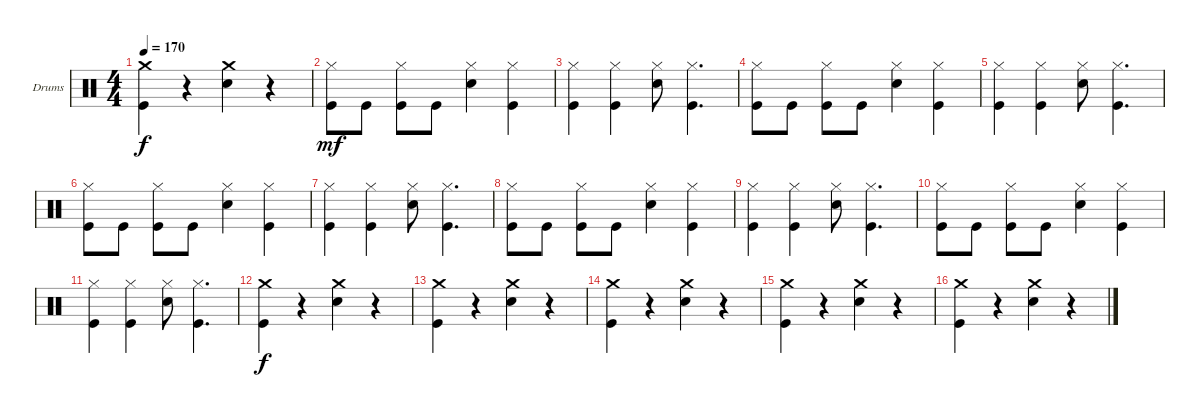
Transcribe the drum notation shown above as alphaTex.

\defaultSystemsLayout 4
\bracketExtendMode groupsimilarinstruments
\firstSystemTrackNameOrientation horizontal
\otherSystemsTrackNameOrientation horizontal
\track ("Drumkit" "Drums") {instrument percussion}
\staff {score}
\articulation defaults
\ts (4 4)
\tempo 170
\clef neutral
\scale
0.333333
\ks c
("Crash medium (hit)" "Kick (hit)").4{dy f} r.4 ("Crash medium (hit)" "Snare (hit) 2").4 r.4 |
\scale
0.333333 ("Kick (hit)" "Hi-Hat (closed)").8{dy mf} "Kick (hit)".8 ("Kick (hit)" "Hi-Hat (closed)").8 "Kick (hit)".8 ("Snare (hit) 2" "Hi-Hat (closed)").4 ("Kick (hit)" "Hi-Hat (closed)").4 |
\scale
0.333333 ("Kick (hit)" "Hi-Hat (closed)").4 ("Kick (hit)" "Hi-Hat (closed)").4 ("Snare (hit) 2" "Hi-Hat (closed)").8 ("Kick (hit)" "Hi-Hat (closed)").4{d} |
\scale
0.333333 ("Kick (hit)" "Hi-Hat (closed)").8 "Kick (hit)".8 ("Kick (hit)" "Hi-Hat (closed)").8 "Kick (hit)".8 ("Snare (hit) 2" "Hi-Hat (closed)").4 ("Kick (hit)" "Hi-Hat (closed)").4 |
\scale
0.333333 ("Kick (hit)" "Hi-Hat (closed)").4 ("Kick (hit)" "Hi-Hat (closed)").4 ("Snare (hit) 2" "Hi-Hat (closed)").8 ("Kick (hit)" "Hi-Hat (closed)").4{d} |
\scale
0.333333 ("Kick (hit)" "Hi-Hat (closed)").8 "Kick (hit)".8 ("Kick (hit)" "Hi-Hat (closed)").8 "Kick (hit)".8 ("Snare (hit) 2" "Hi-Hat (closed)").4 ("Kick (hit)" "Hi-Hat (closed)").4 |
\scale
0.333333 ("Kick (hit)" "Hi-Hat (closed)").4 ("Kick (hit)" "Hi-Hat (closed)").4 ("Snare (hit) 2" "Hi-Hat (closed)").8 ("Kick (hit)" "Hi-Hat (closed)").4{d} |
\scale
0.333333 ("Kick (hit)" "Hi-Hat (closed)").8 "Kick (hit)".8 ("Kick (hit)" "Hi-Hat (closed)").8 "Kick (hit)".8 ("Snare (hit) 2" "Hi-Hat (closed)").4 ("Kick (hit)" "Hi-Hat (closed)").4 |
\scale
0.333333 ("Kick (hit)" "Hi-Hat (closed)").4 ("Kick (hit)" "Hi-Hat (closed)").4 ("Snare (hit) 2" "Hi-Hat (closed)").8 ("Kick (hit)" "Hi-Hat (closed)").4{d} |
\scale
0.333333 ("Kick (hit)" "Hi-Hat (closed)").8 "Kick (hit)".8 ("Kick (hit)" "Hi-Hat (closed)").8 "Kick (hit)".8 ("Snare (hit) 2" "Hi-Hat (closed)").4 ("Kick (hit)" "Hi-Hat (closed)").4 |
\scale
0.333333 ("Kick (hit)" "Hi-Hat (closed)").4 ("Kick (hit)" "Hi-Hat (closed)").4 ("Snare (hit) 2" "Hi-Hat (closed)").8 ("Kick (hit)" "Hi-Hat (closed)").4{d} |
\scale
0.333333 ("Crash medium (hit)" "Kick (hit)").4{dy f} r.4 ("Crash medium (hit)" "Snare (hit) 2").4 r.4 |
\scale
0.333333 ("Crash medium (hit)" "Kick (hit)").4 r.4 ("Crash medium (hit)" "Snare (hit) 2").4 r.4 |
\scale
0.333333 ("Crash medium (hit)" "Kick (hit)").4 r.4 ("Crash medium (hit)" "Snare (hit) 2").4 r.4 |
\scale
0.333333 ("Crash medium (hit)" "Kick (hit)").4 r.4 ("Crash medium (hit)" "Snare (hit) 2").4 r.4 |
\scale
0.333333 ("Crash medium (hit)" "Kick (hit)").4 r.4 ("Crash medium (hit)" "Snare (hit) 2").4 r.4
